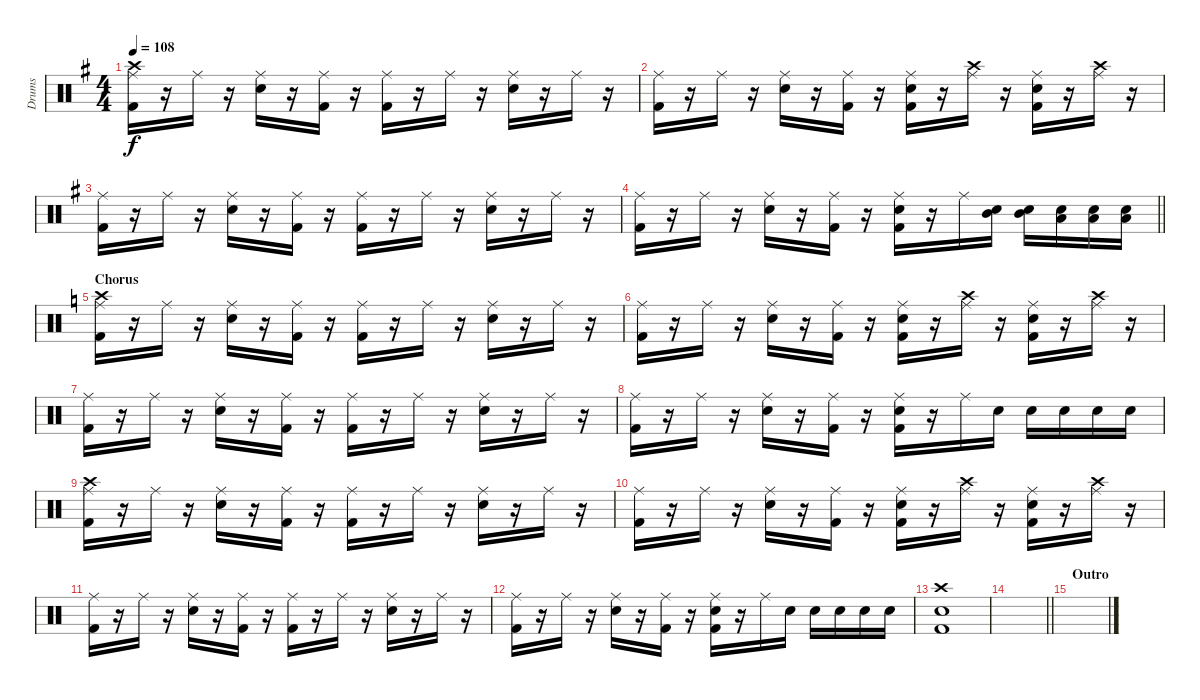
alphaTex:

\track ("Drums" "Drums") {instrument percussion}
\staff {score}
\articulation defaults
\ts (4 4)
\tempo 108
\clef neutral
\ks g
("Crash high (hit)" "Ride (middle)" "Kick (hit) 2").16{dy f} r.16 "Ride (middle)".16 r.16 ("Snare (hit) 2" "Ride (middle)").16 r.16 ("Ride (middle)" "Kick (hit) 2").16 r.16 ("Ride (middle)" "Kick (hit) 2").16 r.16 "Ride (middle)".16 r.16 ("Snare (hit) 2" "Ride (middle)").16 r.16 "Ride (middle)".16 r.16 |
("Ride (middle)" "Kick (hit) 2").16 r.16 "Ride (middle)".16 r.16 ("Snare (hit) 2" "Ride (middle)").16 r.16 ("Ride (middle)" "Kick (hit) 2").16 r.16 ("Snare (hit) 2" "Ride (middle)" "Kick (hit) 2").16 r.16 ("Crash high (hit)" "Ride (middle)").16 r.16 ("Snare (hit) 2" "Ride (middle)" "Kick (hit) 2").16 r.16 ("Crash high (hit)" "Ride (middle)").16 r.16 |
("Ride (middle)" "Kick (hit) 2").16 r.16 "Ride (middle)".16 r.16 ("Snare (hit) 2" "Ride (middle)").16 r.16 ("Ride (middle)" "Kick (hit) 2").16 r.16 ("Ride (middle)" "Kick (hit) 2").16 r.16 "Ride (middle)".16 r.16 ("Snare (hit) 2" "Ride (middle)").16 r.16 "Ride (middle)".16 r.16 |
\barLineRight lightlight
("Ride (middle)" "Kick (hit) 2").16 r.16 "Ride (middle)".16 r.16 ("Snare (hit) 2" "Ride (middle)").16 r.16 ("Ride (middle)" "Kick (hit) 2").16 r.16 ("Snare (hit) 2" "Ride (middle)" "Kick (hit) 2").16 r.16 "Ride (middle)".16 ("Snare (hit) 2" "Mid Tom (hit)").16 ("Snare (hit) 2" "Mid Tom (hit)").16 ("Snare (hit) 2" "Low Tom (hit)").16 ("Snare (hit) 2" "Low Tom (hit)").16 ("Snare (hit) 2" "Low Floor Tom (hit)").16 |
\section ("" "Chorus")
\ks c
("Crash high (hit)" "Ride (middle)" "Kick (hit) 2").16 r.16 "Ride (middle)".16 r.16 ("Snare (hit) 2" "Ride (middle)").16 r.16 ("Ride (middle)" "Kick (hit) 2").16 r.16 ("Ride (middle)" "Kick (hit) 2").16 r.16 "Ride (middle)".16 r.16 ("Snare (hit) 2" "Ride (middle)").16 r.16 "Ride (middle)".16 r.16 |
("Ride (middle)" "Kick (hit) 2").16 r.16 "Ride (middle)".16 r.16 ("Snare (hit) 2" "Ride (middle)").16 r.16 ("Ride (middle)" "Kick (hit) 2").16 r.16 ("Snare (hit) 2" "Ride (middle)" "Kick (hit) 2").16 r.16 ("Crash high (hit)" "Ride (middle)").16 r.16 ("Snare (hit) 2" "Ride (middle)" "Kick (hit) 2").16 r.16 ("Crash high (hit)" "Ride (middle)").16 r.16 |
("Ride (middle)" "Kick (hit) 2").16 r.16 "Ride (middle)".16 r.16 ("Snare (hit) 2" "Ride (middle)").16 r.16 ("Ride (middle)" "Kick (hit) 2").16 r.16 ("Ride (middle)" "Kick (hit) 2").16 r.16 "Ride (middle)".16 r.16 ("Snare (hit) 2" "Ride (middle)").16 r.16 "Ride (middle)".16 r.16 |
("Ride (middle)" "Kick (hit) 2").16 r.16 "Ride (middle)".16 r.16 ("Snare (hit) 2" "Ride (middle)").16 r.16 ("Ride (middle)" "Kick (hit) 2").16 r.16 ("Snare (hit) 2" "Ride (middle)" "Kick (hit) 2").16 r.16 "Ride (middle)".16 "Snare (hit) 2".16 "Snare (hit) 2".16 "Snare (hit) 2".16 "Snare (hit) 2".16 "Snare (hit) 2".16 |
("Crash high (hit)" "Ride (middle)" "Kick (hit) 2").16 r.16 "Ride (middle)".16 r.16 ("Snare (hit) 2" "Ride (middle)").16 r.16 ("Ride (middle)" "Kick (hit) 2").16 r.16 ("Ride (middle)" "Kick (hit) 2").16 r.16 "Ride (middle)".16 r.16 ("Snare (hit) 2" "Ride (middle)").16 r.16 "Ride (middle)".16 r.16 |
("Ride (middle)" "Kick (hit) 2").16 r.16 "Ride (middle)".16 r.16 ("Snare (hit) 2" "Ride (middle)").16 r.16 ("Ride (middle)" "Kick (hit) 2").16 r.16 ("Snare (hit) 2" "Ride (middle)" "Kick (hit) 2").16 r.16 ("Crash high (hit)" "Ride (middle)").16 r.16 ("Snare (hit) 2" "Ride (middle)" "Kick (hit) 2").16 r.16 ("Crash high (hit)" "Ride (middle)").16 r.16 |
("Ride (middle)" "Kick (hit) 2").16 r.16 "Ride (middle)".16 r.16 ("Snare (hit) 2" "Ride (middle)").16 r.16 ("Ride (middle)" "Kick (hit) 2").16 r.16 ("Ride (middle)" "Kick (hit) 2").16 r.16 "Ride (middle)".16 r.16 ("Snare (hit) 2" "Ride (middle)").16 r.16 "Ride (middle)".16 r.16 |
("Ride (middle)" "Kick (hit) 2").16 r.16 "Ride (middle)".16 r.16 ("Snare (hit) 2" "Ride (middle)").16 r.16 ("Ride (middle)" "Kick (hit) 2").16 r.16 ("Snare (hit) 2" "Ride (middle)" "Kick (hit) 2").16 r.16 "Ride (middle)".16 "Snare (hit) 2".16 "Snare (hit) 2".16 "Snare (hit) 2".16 "Snare (hit) 2".16 "Snare (hit) 2".16 |
("Crash high (hit)" "Snare (hit) 2" "Kick (hit) 2").1 |
\barLineRight lightlight
|
\section ("" "Outro")
